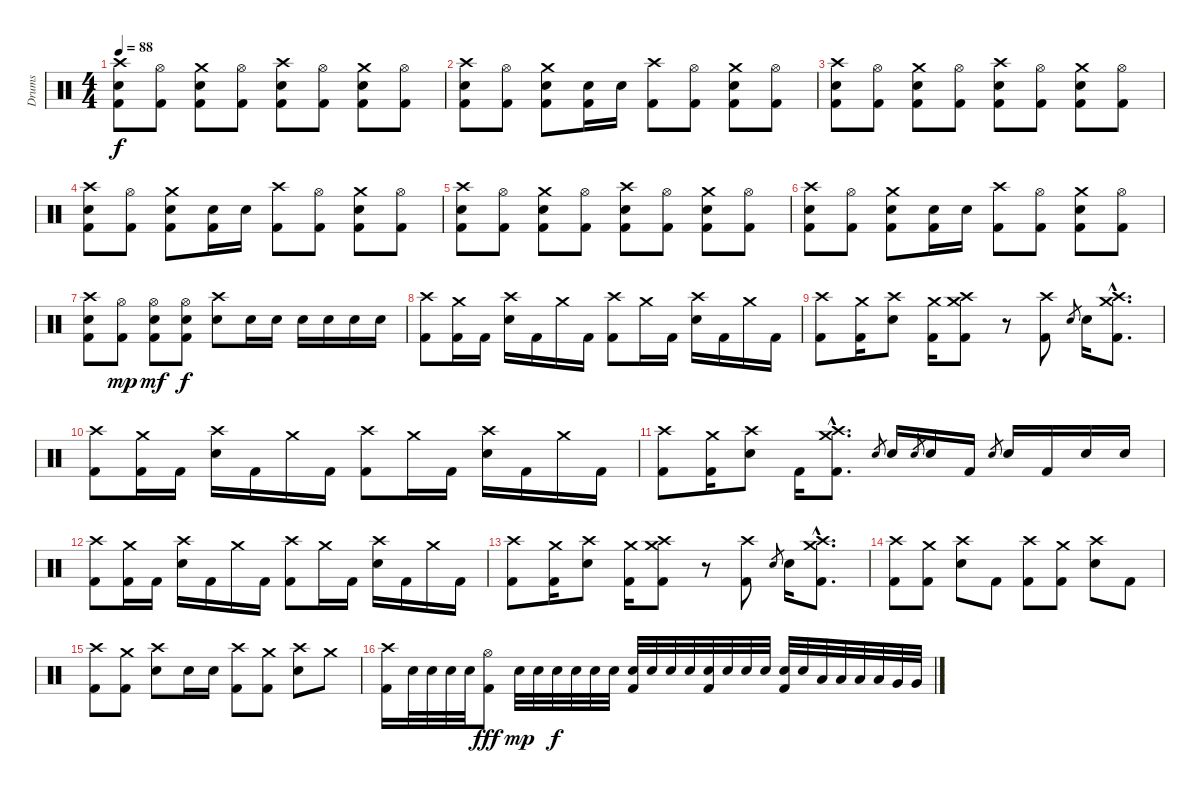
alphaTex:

\track ("Drums" "Drums") {instrument percussion}
\staff {score}
\articulation defaults
\ts (4 4)
\tempo 88
\clef neutral
\ks c
("Crash high (hit)" "Snare (hit) 2" "Kick (hit) 2").8{dy f} ("Hi-Hat (open)" "Kick (hit) 2").8 ("Crash medium (hit)" "Snare (hit) 2" "Kick (hit) 2").8 ("Hi-Hat (open)" "Kick (hit) 2").8 ("Crash high (hit)" "Snare (hit) 2" "Kick (hit) 2").8 ("Hi-Hat (open)" "Kick (hit) 2").8 ("Crash medium (hit)" "Snare (hit) 2" "Kick (hit) 2").8 ("Hi-Hat (open)" "Kick (hit) 2").8 |
("Crash high (hit)" "Snare (hit) 2" "Kick (hit) 2").8 ("Hi-Hat (open)" "Kick (hit) 2").8 ("Crash medium (hit)" "Snare (hit) 2" "Kick (hit) 2").8 ("Snare (hit) 2" "Kick (hit) 2").16 "Snare (hit) 2".16 ("Crash high (hit)" "Kick (hit) 2").8 ("Hi-Hat (open)" "Kick (hit) 2").8 ("Crash medium (hit)" "Snare (hit) 2" "Kick (hit) 2").8 ("Hi-Hat (open)" "Kick (hit) 2").8 |
("Crash high (hit)" "Snare (hit) 2" "Kick (hit) 2").8 ("Hi-Hat (open)" "Kick (hit) 2").8 ("Crash medium (hit)" "Snare (hit) 2" "Kick (hit) 2").8 ("Hi-Hat (open)" "Kick (hit) 2").8 ("Crash high (hit)" "Snare (hit) 2" "Kick (hit) 2").8 ("Hi-Hat (open)" "Kick (hit) 2").8 ("Crash medium (hit)" "Snare (hit) 2" "Kick (hit) 2").8 ("Hi-Hat (open)" "Kick (hit) 2").8 |
("Crash high (hit)" "Snare (hit) 2" "Kick (hit) 2").8 ("Hi-Hat (open)" "Kick (hit) 2").8 ("Crash medium (hit)" "Snare (hit) 2" "Kick (hit) 2").8 ("Snare (hit) 2" "Kick (hit) 2").16 "Snare (hit) 2".16 ("Crash high (hit)" "Kick (hit) 2").8 ("Hi-Hat (open)" "Kick (hit) 2").8 ("Crash medium (hit)" "Snare (hit) 2" "Kick (hit) 2").8 ("Hi-Hat (open)" "Kick (hit) 2").8 |
("Crash high (hit)" "Snare (hit) 2" "Kick (hit) 2").8 ("Hi-Hat (open)" "Kick (hit) 2").8 ("Crash medium (hit)" "Snare (hit) 2" "Kick (hit) 2").8 ("Hi-Hat (open)" "Kick (hit) 2").8 ("Crash high (hit)" "Snare (hit) 2" "Kick (hit) 2").8 ("Hi-Hat (open)" "Kick (hit) 2").8 ("Crash medium (hit)" "Snare (hit) 2" "Kick (hit) 2").8 ("Hi-Hat (open)" "Kick (hit) 2").8 |
("Crash high (hit)" "Snare (hit) 2" "Kick (hit) 2").8 ("Hi-Hat (open)" "Kick (hit) 2").8 ("Crash medium (hit)" "Snare (hit) 2" "Kick (hit) 2").8 ("Snare (hit) 2" "Kick (hit) 2").16 "Snare (hit) 2".16 ("Crash high (hit)" "Kick (hit) 2").8 ("Hi-Hat (open)" "Kick (hit) 2").8 ("Crash medium (hit)" "Snare (hit) 2" "Kick (hit) 2").8 ("Hi-Hat (open)" "Kick (hit) 2").8 |
("Crash high (hit)" "Snare (hit) 2" "Kick (hit) 2").8 ("Hi-Hat (open)" "Kick (hit) 2").8{dy mp} ("Hi-Hat (open)" "Snare (hit) 2" "Kick (hit) 2").8{dy mf} ("Hi-Hat (open)" "Snare (hit) 2" "Kick (hit) 2").8{dy f} ("Crash high (hit)" "Snare (hit) 2").8 "Snare (hit) 2".16 "Snare (hit) 2".16 "Snare (hit) 2".16 "Snare (hit) 2".16 "Snare (hit) 2".16 "Snare (hit) 2".16 |
("Crash high (hit)" "Kick (hit) 2").8 ("Crash medium (hit)" "Kick (hit) 2").16 "Kick (hit) 2".16 ("Crash high (hit)" "Snare (hit) 2").16 "Kick (hit) 2".16 "Crash medium (hit)".16 "Kick (hit) 2".16 ("Crash high (hit)" "Kick (hit) 2").8 "Crash medium (hit)".16 "Kick (hit) 2".16 ("Crash high (hit)" "Snare (hit) 2").16 "Kick (hit) 2".16 "Crash medium (hit)".16 "Kick (hit) 2".16 |
("Crash high (hit)" "Kick (hit) 2").8 ("Crash medium (hit)" "Kick (hit) 2").16 ("Crash high (hit)" "Snare (hit) 2").8 ("Crash medium (hit)" "Kick (hit) 2").16 ("Crash high (hit)" "Crash medium (hit)" "Kick (hit) 2").8 r.8 ("Crash high (hit)" "Kick (hit) 2").8 "Snare (hit) 2".8{gr} "Snare (hit) 2".16 ("Crash high (hit)"{hac} "Crash medium (hit)"{hac} "Kick (hit) 2"{hac}).8{d} |
("Crash high (hit)" "Kick (hit) 2").8 ("Crash medium (hit)" "Kick (hit) 2").16 "Kick (hit) 2".16 ("Crash high (hit)" "Snare (hit) 2").16 "Kick (hit) 2".16 "Crash medium (hit)".16 "Kick (hit) 2".16 ("Crash high (hit)" "Kick (hit) 2").8 "Crash medium (hit)".16 "Kick (hit) 2".16 ("Crash high (hit)" "Snare (hit) 2").16 "Kick (hit) 2".16 "Crash medium (hit)".16 "Kick (hit) 2".16 |
("Crash high (hit)" "Kick (hit) 2").8 ("Crash medium (hit)" "Kick (hit) 2").16 ("Crash high (hit)" "Snare (hit) 2").8 "Kick (hit) 2".16 ("Crash high (hit)"{hac} "Crash medium (hit)"{hac} "Kick (hit) 2"{hac}).8{d} "Snare (hit) 2".8{gr} "Snare (hit) 2".16 "Snare (hit) 2".8{gr} "Snare (hit) 2".16 "Kick (hit) 2".16 "Snare (hit) 2".8{gr} "Snare (hit) 2".16 "Kick (hit) 2".16 "Snare (hit) 2".16 "Snare (hit) 2".16 |
("Crash high (hit)" "Kick (hit) 2").8 ("Crash medium (hit)" "Kick (hit) 2").16 "Kick (hit) 2".16 ("Crash high (hit)" "Snare (hit) 2").16 "Kick (hit) 2".16 "Crash medium (hit)".16 "Kick (hit) 2".16 ("Crash high (hit)" "Kick (hit) 2").8 "Crash medium (hit)".16 "Kick (hit) 2".16 ("Crash high (hit)" "Snare (hit) 2").16 "Kick (hit) 2".16 "Crash medium (hit)".16 "Kick (hit) 2".16 |
("Crash high (hit)" "Kick (hit) 2").8 ("Crash medium (hit)" "Kick (hit) 2").16 ("Crash high (hit)" "Snare (hit) 2").8 ("Crash medium (hit)" "Kick (hit) 2").16 ("Crash high (hit)" "Crash medium (hit)" "Kick (hit) 2").8 r.8 ("Crash high (hit)" "Kick (hit) 2").8 "Snare (hit) 2".8{gr} "Snare (hit) 2".16 ("Crash high (hit)"{hac} "Crash medium (hit)"{hac} "Kick (hit) 2"{hac}).8{d} |
("Crash high (hit)" "Kick (hit) 2").8 ("Crash medium (hit)" "Kick (hit) 2").8 ("Crash high (hit)" "Snare (hit) 2").8 "Kick (hit) 2".8 ("Crash high (hit)" "Kick (hit) 2").8 ("Crash medium (hit)" "Kick (hit) 2").8 ("Crash high (hit)" "Snare (hit) 2").8 "Kick (hit) 2".8 |
("Crash high (hit)" "Kick (hit) 2").8 ("Crash medium (hit)" "Kick (hit) 2").8 ("Crash high (hit)" "Snare (hit) 2").8 "Snare (hit) 2".16 "Snare (hit) 2".16 ("Crash high (hit)" "Kick (hit) 2").8 ("Crash medium (hit)" "Kick (hit) 2").8 ("Crash high (hit)" "Snare (hit) 2").8 "Crash medium (hit)".8 |
("Crash high (hit)" "Kick (hit) 2").16 "Snare (hit) 2".32 "Snare (hit) 2".32 "Snare (hit) 2".32 "Snare (hit) 2".32 ("Hi-Hat (open)" "Kick (hit) 2").8{dy fff} "Snare (hit) 2".32{dy mp} "Snare (hit) 2".32 "Snare (hit) 2".32{dy f} "Snare (hit) 2".32 "Snare (hit) 2".32 "Snare (hit) 2".32 ("Snare (hit) 2" "Kick (hit) 2").32 "Snare (hit) 2".32 "Snare (hit) 2".32 "Snare (hit) 2".32 ("Snare (hit) 2" "Kick (hit) 2").32 "Snare (hit) 2".32 "Snare (hit) 2".32 "Snare (hit) 2".32 ("Snare (hit) 2" "Kick (hit) 2").32 "Snare (hit) 2".32 "Low Tom (hit)".32 "Low Tom (hit)".32 "Low Tom (hit)".32 "Low Tom (hit)".32 "Very Low Tom (hit)".32 "Very Low Tom (hit)".32
